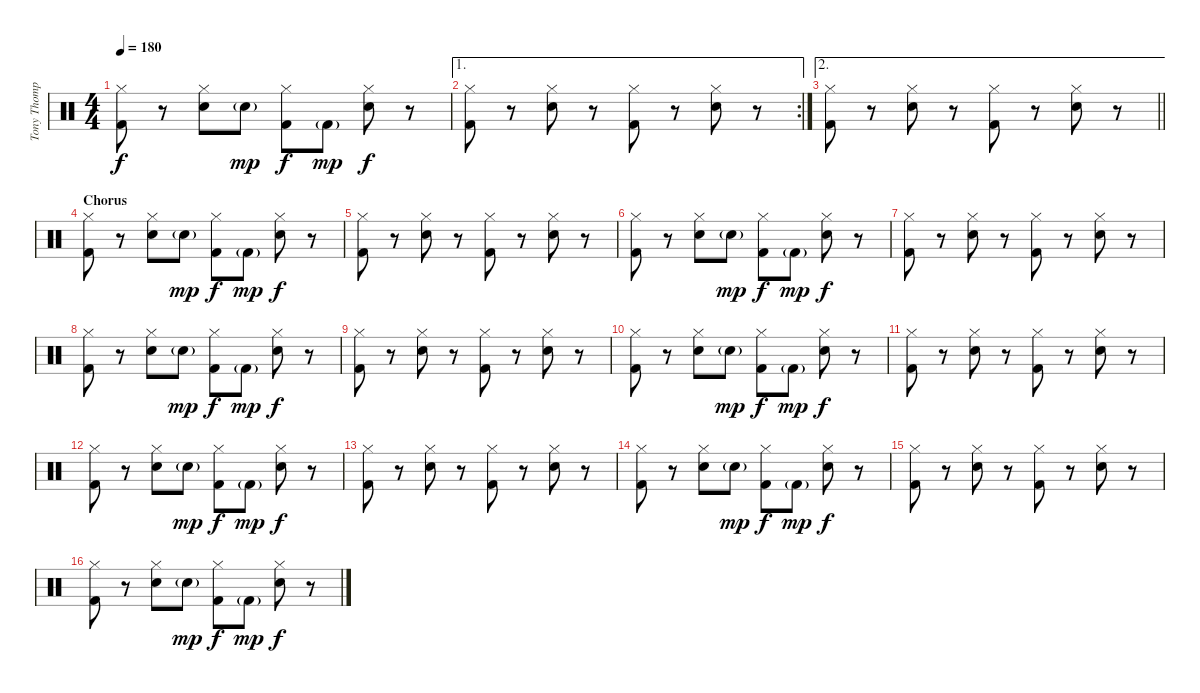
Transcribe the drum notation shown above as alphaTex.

\track ("Tony Thompson (Drums)" "Tony Thomp") {instrument percussion}
\staff {score}
\articulation defaults
\ts (4 4)
\tempo 180
\clef neutral
\ks c
("Hi-Hat (closed)" "Kick (hit) 2").8{dy f} r.8 ("Hi-Hat (closed)" "Electric Snare (hit)").8 "Electric Snare (hit)"{g}.8{dy mp} ("Hi-Hat (closed)" "Kick (hit) 2").8{dy f} "Kick (hit) 2"{g}.8{dy mp} ("Hi-Hat (closed)" "Electric Snare (hit)").8{dy f} r.8 |
\ae 1
\rc 2
("Hi-Hat (closed)" "Kick (hit) 2").8 r.8 ("Hi-Hat (closed)" "Electric Snare (hit)").8 r.8 ("Hi-Hat (closed)" "Kick (hit) 2").8 r.8 ("Hi-Hat (closed)" "Electric Snare (hit)").8 r.8 |
\ae 2
\barLineRight lightlight
("Hi-Hat (closed)" "Kick (hit) 2").8 r.8 ("Hi-Hat (closed)" "Electric Snare (hit)").8 r.8 ("Hi-Hat (closed)" "Kick (hit) 2").8 r.8 ("Hi-Hat (closed)" "Electric Snare (hit)").8 r.8 |
\section ("" "Chorus")
("Hi-Hat (closed)" "Kick (hit) 2").8 r.8 ("Hi-Hat (closed)" "Electric Snare (hit)").8 "Electric Snare (hit)"{g}.8{dy mp} ("Hi-Hat (closed)" "Kick (hit) 2").8{dy f} "Kick (hit) 2"{g}.8{dy mp} ("Hi-Hat (closed)" "Electric Snare (hit)").8{dy f} r.8 |
("Hi-Hat (closed)" "Kick (hit) 2").8 r.8 ("Hi-Hat (closed)" "Electric Snare (hit)").8 r.8 ("Hi-Hat (closed)" "Kick (hit) 2").8 r.8 ("Hi-Hat (closed)" "Electric Snare (hit)").8 r.8 |
("Hi-Hat (closed)" "Kick (hit) 2").8 r.8 ("Hi-Hat (closed)" "Electric Snare (hit)").8 "Electric Snare (hit)"{g}.8{dy mp} ("Hi-Hat (closed)" "Kick (hit) 2").8{dy f} "Kick (hit) 2"{g}.8{dy mp} ("Hi-Hat (closed)" "Electric Snare (hit)").8{dy f} r.8 |
("Hi-Hat (closed)" "Kick (hit) 2").8 r.8 ("Hi-Hat (closed)" "Electric Snare (hit)").8 r.8 ("Hi-Hat (closed)" "Kick (hit) 2").8 r.8 ("Hi-Hat (closed)" "Electric Snare (hit)").8 r.8 |
("Hi-Hat (closed)" "Kick (hit) 2").8 r.8 ("Hi-Hat (closed)" "Electric Snare (hit)").8 "Electric Snare (hit)"{g}.8{dy mp} ("Hi-Hat (closed)" "Kick (hit) 2").8{dy f} "Kick (hit) 2"{g}.8{dy mp} ("Hi-Hat (closed)" "Electric Snare (hit)").8{dy f} r.8 |
("Hi-Hat (closed)" "Kick (hit) 2").8 r.8 ("Hi-Hat (closed)" "Electric Snare (hit)").8 r.8 ("Hi-Hat (closed)" "Kick (hit) 2").8 r.8 ("Hi-Hat (closed)" "Electric Snare (hit)").8 r.8 |
("Hi-Hat (closed)" "Kick (hit) 2").8 r.8 ("Hi-Hat (closed)" "Electric Snare (hit)").8 "Electric Snare (hit)"{g}.8{dy mp} ("Hi-Hat (closed)" "Kick (hit) 2").8{dy f} "Kick (hit) 2"{g}.8{dy mp} ("Hi-Hat (closed)" "Electric Snare (hit)").8{dy f} r.8 |
("Hi-Hat (closed)" "Kick (hit) 2").8 r.8 ("Hi-Hat (closed)" "Electric Snare (hit)").8 r.8 ("Hi-Hat (closed)" "Kick (hit) 2").8 r.8 ("Hi-Hat (closed)" "Electric Snare (hit)").8 r.8 |
("Hi-Hat (closed)" "Kick (hit) 2").8 r.8 ("Hi-Hat (closed)" "Electric Snare (hit)").8 "Electric Snare (hit)"{g}.8{dy mp} ("Hi-Hat (closed)" "Kick (hit) 2").8{dy f} "Kick (hit) 2"{g}.8{dy mp} ("Hi-Hat (closed)" "Electric Snare (hit)").8{dy f} r.8 |
("Hi-Hat (closed)" "Kick (hit) 2").8 r.8 ("Hi-Hat (closed)" "Electric Snare (hit)").8 r.8 ("Hi-Hat (closed)" "Kick (hit) 2").8 r.8 ("Hi-Hat (closed)" "Electric Snare (hit)").8 r.8 |
("Hi-Hat (closed)" "Kick (hit) 2").8 r.8 ("Hi-Hat (closed)" "Electric Snare (hit)").8 "Electric Snare (hit)"{g}.8{dy mp} ("Hi-Hat (closed)" "Kick (hit) 2").8{dy f} "Kick (hit) 2"{g}.8{dy mp} ("Hi-Hat (closed)" "Electric Snare (hit)").8{dy f} r.8 |
("Hi-Hat (closed)" "Kick (hit) 2").8 r.8 ("Hi-Hat (closed)" "Electric Snare (hit)").8 r.8 ("Hi-Hat (closed)" "Kick (hit) 2").8 r.8 ("Hi-Hat (closed)" "Electric Snare (hit)").8 r.8 |
("Hi-Hat (closed)" "Kick (hit) 2").8 r.8 ("Hi-Hat (closed)" "Electric Snare (hit)").8 "Electric Snare (hit)"{g}.8{dy mp} ("Hi-Hat (closed)" "Kick (hit) 2").8{dy f} "Kick (hit) 2"{g}.8{dy mp} ("Hi-Hat (closed)" "Electric Snare (hit)").8{dy f} r.8
